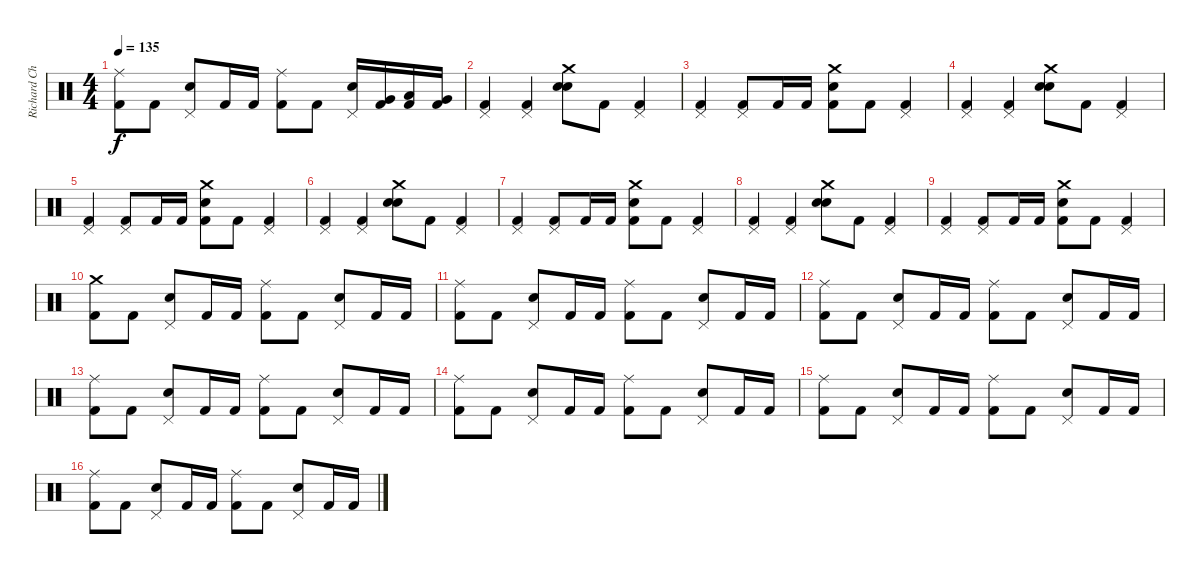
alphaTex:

\track ("Richard Christy" "Richard Ch") {instrument percussion}
\staff {score}
\articulation defaults
\ts (4 4)
\tempo 135
\clef neutral
\ks c
("Ride (middle)" "Kick (hit) 2").8{dy f} "Kick (hit) 2".8 ("Snare (hit) 2" "Pedal Hi-Hat (hit)").8 "Kick (hit) 2".16 "Kick (hit) 2".16 ("Ride (middle)" "Kick (hit) 2").8 "Kick (hit) 2".8 ("Snare (hit) 2" "Pedal Hi-Hat (hit)").16 ("Very Low Tom (hit)" "Kick (hit) 2").16 ("Low Tom (hit)" "Kick (hit) 2").16 ("Very Low Tom (hit)" "Kick (hit) 2").16 |
("Pedal Hi-Hat (hit)" "Kick (hit) 2").4 ("Pedal Hi-Hat (hit)" "Kick (hit) 2").4 ("Snare (hit) 2" "Crash medium (hit)" "Snare (hit) 2").8 "Kick (hit) 2".8 ("Pedal Hi-Hat (hit)" "Kick (hit) 2").4 |
("Pedal Hi-Hat (hit)" "Kick (hit) 2").4 ("Pedal Hi-Hat (hit)" "Kick (hit) 2").8 "Kick (hit) 2".16 "Kick (hit) 2".16 ("Snare (hit) 2" "Crash medium (hit)" "Kick (hit) 2").8 "Kick (hit) 2".8 ("Pedal Hi-Hat (hit)" "Kick (hit) 2").4 |
("Pedal Hi-Hat (hit)" "Kick (hit) 2").4 ("Pedal Hi-Hat (hit)" "Kick (hit) 2").4 ("Snare (hit) 2" "Crash medium (hit)" "Snare (hit) 2").8 "Kick (hit) 2".8 ("Pedal Hi-Hat (hit)" "Kick (hit) 2").4 |
("Pedal Hi-Hat (hit)" "Kick (hit) 2").4 ("Pedal Hi-Hat (hit)" "Kick (hit) 2").8 "Kick (hit) 2".16 "Kick (hit) 2".16 ("Snare (hit) 2" "Crash medium (hit)" "Kick (hit) 2").8 "Kick (hit) 2".8 ("Pedal Hi-Hat (hit)" "Kick (hit) 2").4 |
("Pedal Hi-Hat (hit)" "Kick (hit) 2").4 ("Pedal Hi-Hat (hit)" "Kick (hit) 2").4 ("Snare (hit) 2" "Crash medium (hit)" "Snare (hit) 2").8 "Kick (hit) 2".8 ("Pedal Hi-Hat (hit)" "Kick (hit) 2").4 |
("Pedal Hi-Hat (hit)" "Kick (hit) 2").4 ("Pedal Hi-Hat (hit)" "Kick (hit) 2").8 "Kick (hit) 2".16 "Kick (hit) 2".16 ("Snare (hit) 2" "Crash medium (hit)" "Kick (hit) 2").8 "Kick (hit) 2".8 ("Pedal Hi-Hat (hit)" "Kick (hit) 2").4 |
("Pedal Hi-Hat (hit)" "Kick (hit) 2").4 ("Pedal Hi-Hat (hit)" "Kick (hit) 2").4 ("Snare (hit) 2" "Crash medium (hit)" "Snare (hit) 2").8 "Kick (hit) 2".8 ("Pedal Hi-Hat (hit)" "Kick (hit) 2").4 |
("Pedal Hi-Hat (hit)" "Kick (hit) 2").4 ("Pedal Hi-Hat (hit)" "Kick (hit) 2").8 "Kick (hit) 2".16 "Kick (hit) 2".16 ("Snare (hit) 2" "Crash medium (hit)" "Kick (hit) 2").8 "Kick (hit) 2".8 ("Pedal Hi-Hat (hit)" "Kick (hit) 2").4 |
("Crash medium (hit)" "Kick (hit) 2").8 "Kick (hit) 2".8 ("Snare (hit) 2" "Pedal Hi-Hat (hit)").8 "Kick (hit) 2".16 "Kick (hit) 2".16 ("Ride (middle)" "Kick (hit) 2").8 "Kick (hit) 2".8 ("Snare (hit) 2" "Pedal Hi-Hat (hit)").8 "Kick (hit) 2".16 "Kick (hit) 2".16 |
("Ride (middle)" "Kick (hit) 2").8 "Kick (hit) 2".8 ("Snare (hit) 2" "Pedal Hi-Hat (hit)").8 "Kick (hit) 2".16 "Kick (hit) 2".16 ("Ride (middle)" "Kick (hit) 2").8 "Kick (hit) 2".8 ("Snare (hit) 2" "Pedal Hi-Hat (hit)").8 "Kick (hit) 2".16 "Kick (hit) 2".16 |
("Ride (middle)" "Kick (hit) 2").8 "Kick (hit) 2".8 ("Snare (hit) 2" "Pedal Hi-Hat (hit)").8 "Kick (hit) 2".16 "Kick (hit) 2".16 ("Ride (middle)" "Kick (hit) 2").8 "Kick (hit) 2".8 ("Snare (hit) 2" "Pedal Hi-Hat (hit)").8 "Kick (hit) 2".16 "Kick (hit) 2".16 |
("Ride (middle)" "Kick (hit) 2").8 "Kick (hit) 2".8 ("Snare (hit) 2" "Pedal Hi-Hat (hit)").8 "Kick (hit) 2".16 "Kick (hit) 2".16 ("Ride (middle)" "Kick (hit) 2").8 "Kick (hit) 2".8 ("Snare (hit) 2" "Pedal Hi-Hat (hit)").8 "Kick (hit) 2".16 "Kick (hit) 2".16 |
("Ride (middle)" "Kick (hit) 2").8 "Kick (hit) 2".8 ("Snare (hit) 2" "Pedal Hi-Hat (hit)").8 "Kick (hit) 2".16 "Kick (hit) 2".16 ("Ride (middle)" "Kick (hit) 2").8 "Kick (hit) 2".8 ("Snare (hit) 2" "Pedal Hi-Hat (hit)").8 "Kick (hit) 2".16 "Kick (hit) 2".16 |
("Ride (middle)" "Kick (hit) 2").8 "Kick (hit) 2".8 ("Snare (hit) 2" "Pedal Hi-Hat (hit)").8 "Kick (hit) 2".16 "Kick (hit) 2".16 ("Ride (middle)" "Kick (hit) 2").8 "Kick (hit) 2".8 ("Snare (hit) 2" "Pedal Hi-Hat (hit)").8 "Kick (hit) 2".16 "Kick (hit) 2".16 |
("Ride (middle)" "Kick (hit) 2").8 "Kick (hit) 2".8 ("Snare (hit) 2" "Pedal Hi-Hat (hit)").8 "Kick (hit) 2".16 "Kick (hit) 2".16 ("Ride (middle)" "Kick (hit) 2").8 "Kick (hit) 2".8 ("Snare (hit) 2" "Pedal Hi-Hat (hit)").8 "Kick (hit) 2".16 "Kick (hit) 2".16
